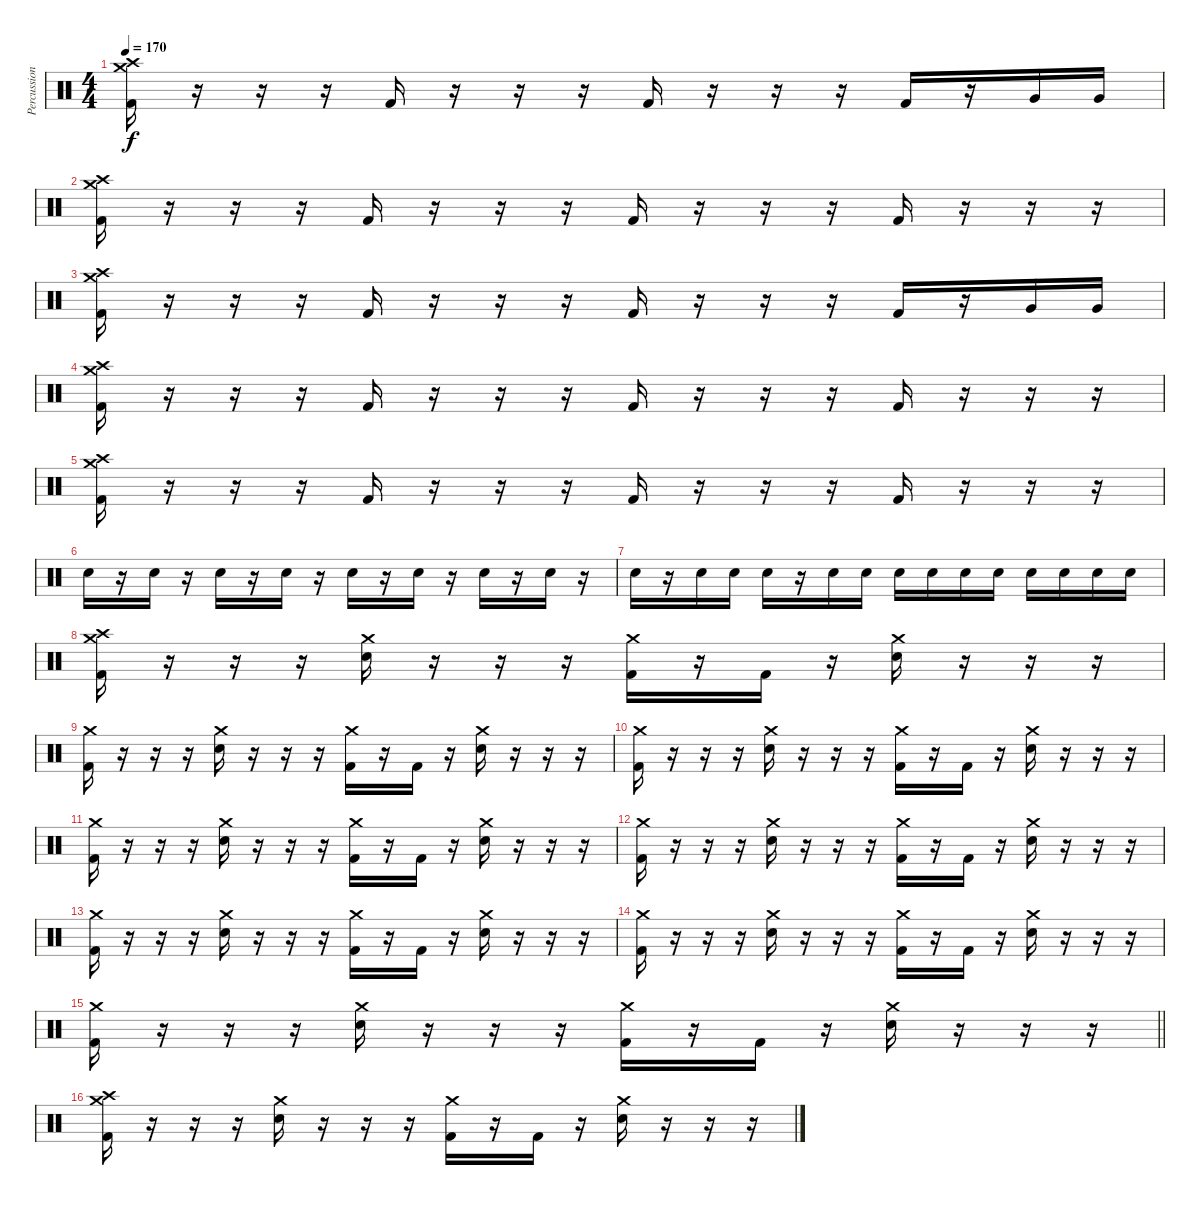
\track ("Percussion" "Percussion") {instrument percussion}
\staff {score}
\articulation defaults
\ts (4 4)
\tempo 170
\clef neutral
\ks c
("Crash high (hit)" "Crash medium (hit)" "Kick (hit) 2").16{dy f} r.16 r.16 r.16 "Kick (hit) 2".16 r.16 r.16 r.16 "Kick (hit) 2".16 r.16 r.16 r.16 "Kick (hit) 2".16 r.16 "Very Low Tom (hit)".16 "Very Low Tom (hit)".16 |
("Crash high (hit)" "Crash medium (hit)" "Kick (hit) 2").16 r.16 r.16 r.16 "Kick (hit) 2".16 r.16 r.16 r.16 "Kick (hit) 2".16 r.16 r.16 r.16 "Kick (hit) 2".16 r.16 r.16 r.16 |
("Crash high (hit)" "Crash medium (hit)" "Kick (hit) 2").16 r.16 r.16 r.16 "Kick (hit) 2".16 r.16 r.16 r.16 "Kick (hit) 2".16 r.16 r.16 r.16 "Kick (hit) 2".16 r.16 "Very Low Tom (hit)".16 "Very Low Tom (hit)".16 |
("Crash high (hit)" "Crash medium (hit)" "Kick (hit) 2").16 r.16 r.16 r.16 "Kick (hit) 2".16 r.16 r.16 r.16 "Kick (hit) 2".16 r.16 r.16 r.16 "Kick (hit) 2".16 r.16 r.16 r.16 |
("Crash high (hit)" "Crash medium (hit)" "Kick (hit) 2").16 r.16 r.16 r.16 "Kick (hit) 2".16 r.16 r.16 r.16 "Kick (hit) 2".16 r.16 r.16 r.16 "Kick (hit) 2".16 r.16 r.16 r.16 |
"Snare (hit) 2".16 r.16 "Snare (hit) 2".16 r.16 "Snare (hit) 2".16 r.16 "Snare (hit) 2".16 r.16 "Electric Snare (hit)".16 r.16 "Electric Snare (hit)".16 r.16 "Electric Snare (hit)".16 r.16 "Electric Snare (hit)".16 r.16 |
"Electric Snare (hit)".16 r.16 "Electric Snare (hit)".16 "Electric Snare (hit)".16 "Electric Snare (hit)".16 r.16 "Electric Snare (hit)".16 "Electric Snare (hit)".16 "Electric Snare (hit)".16 "Electric Snare (hit)".16 "Electric Snare (hit)".16 "Electric Snare (hit)".16 "Electric Snare (hit)".16 "Electric Snare (hit)".16 "Electric Snare (hit)".16 "Electric Snare (hit)".16 |
("Crash medium (hit)" "Crash high (hit)" "Kick (hit) 2").16 r.16 r.16 r.16 ("Crash medium (hit)" "Electric Snare (hit)").16 r.16 r.16 r.16 ("Crash medium (hit)" "Kick (hit) 2").16 r.16 "Kick (hit) 2".16 r.16 ("Crash medium (hit)" "Electric Snare (hit)").16 r.16 r.16 r.16 |
("Crash medium (hit)" "Kick (hit) 2").16 r.16 r.16 r.16 ("Crash medium (hit)" "Electric Snare (hit)").16 r.16 r.16 r.16 ("Crash medium (hit)" "Kick (hit) 2").16 r.16 "Kick (hit) 2".16 r.16 ("Crash medium (hit)" "Electric Snare (hit)").16 r.16 r.16 r.16 |
("Crash medium (hit)" "Kick (hit) 2").16 r.16 r.16 r.16 ("Crash medium (hit)" "Electric Snare (hit)").16 r.16 r.16 r.16 ("Crash medium (hit)" "Kick (hit) 2").16 r.16 "Kick (hit) 2".16 r.16 ("Crash medium (hit)" "Electric Snare (hit)").16 r.16 r.16 r.16 |
("Crash medium (hit)" "Kick (hit) 2").16 r.16 r.16 r.16 ("Crash medium (hit)" "Electric Snare (hit)").16 r.16 r.16 r.16 ("Crash medium (hit)" "Kick (hit) 2").16 r.16 "Kick (hit) 2".16 r.16 ("Crash medium (hit)" "Electric Snare (hit)").16 r.16 r.16 r.16 |
("Crash medium (hit)" "Kick (hit) 2").16 r.16 r.16 r.16 ("Crash medium (hit)" "Electric Snare (hit)").16 r.16 r.16 r.16 ("Crash medium (hit)" "Kick (hit) 2").16 r.16 "Kick (hit) 2".16 r.16 ("Crash medium (hit)" "Electric Snare (hit)").16 r.16 r.16 r.16 |
("Crash medium (hit)" "Kick (hit) 2").16 r.16 r.16 r.16 ("Crash medium (hit)" "Electric Snare (hit)").16 r.16 r.16 r.16 ("Crash medium (hit)" "Kick (hit) 2").16 r.16 "Kick (hit) 2".16 r.16 ("Crash medium (hit)" "Electric Snare (hit)").16 r.16 r.16 r.16 |
("Crash medium (hit)" "Kick (hit) 2").16 r.16 r.16 r.16 ("Crash medium (hit)" "Electric Snare (hit)").16 r.16 r.16 r.16 ("Crash medium (hit)" "Kick (hit) 2").16 r.16 "Kick (hit) 2".16 r.16 ("Crash medium (hit)" "Electric Snare (hit)").16 r.16 r.16 r.16 |
\barLineRight lightlight
("Crash medium (hit)" "Kick (hit) 2").16 r.16 r.16 r.16 ("Crash medium (hit)" "Electric Snare (hit)").16 r.16 r.16 r.16 ("Crash medium (hit)" "Kick (hit) 2").16 r.16 "Kick (hit) 2".16 r.16 ("Crash medium (hit)" "Electric Snare (hit)").16 r.16 r.16 r.16 |
("Crash medium (hit)" "Crash high (hit)" "Kick (hit) 2").16 r.16 r.16 r.16 ("Crash medium (hit)" "Electric Snare (hit)").16 r.16 r.16 r.16 ("Crash medium (hit)" "Kick (hit) 2").16 r.16 "Kick (hit) 2".16 r.16 ("Crash medium (hit)" "Electric Snare (hit)").16 r.16 r.16 r.16
